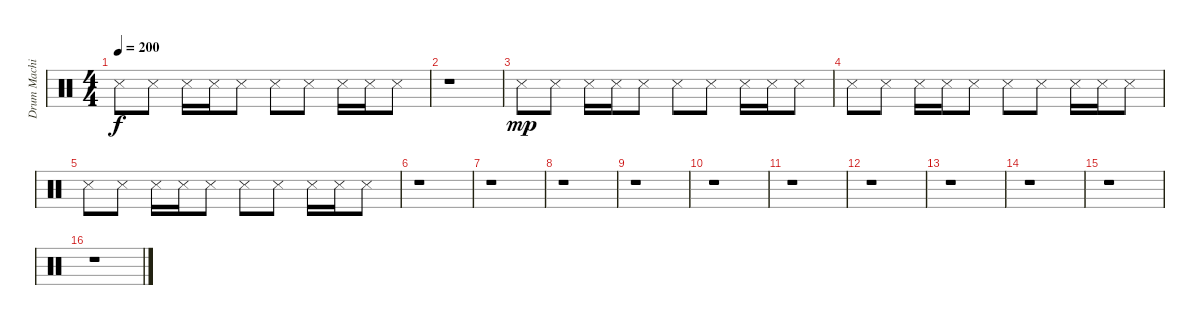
\track ("Drum Machine (James)" "Drum Machi") {instrument percussion}
\staff {score}
\articulation defaults
\ts (4 4)
\tempo 200
\clef neutral
\ks c "Metronome (hit)".8{dy f} "Metronome (hit)".8 "Metronome (hit)".16 "Metronome (hit)".16 "Metronome (hit)".8 "Metronome (hit)".8 "Metronome (hit)".8 "Metronome (hit)".16 "Metronome (hit)".16 "Metronome (hit)".8
|
r.1 |
"Metronome (hit)".8{dy mp} "Metronome (hit)".8 "Metronome (hit)".16 "Metronome (hit)".16 "Metronome (hit)".8 "Metronome (hit)".8 "Metronome (hit)".8 "Metronome (hit)".16 "Metronome (hit)".16 "Metronome (hit)".8 |
"Metronome (hit)".8 "Metronome (hit)".8 "Metronome (hit)".16 "Metronome (hit)".16 "Metronome (hit)".8 "Metronome (hit)".8 "Metronome (hit)".8 "Metronome (hit)".16 "Metronome (hit)".16 "Metronome (hit)".8 |
"Metronome (hit)".8 "Metronome (hit)".8 "Metronome (hit)".16 "Metronome (hit)".16 "Metronome (hit)".8 "Metronome (hit)".8 "Metronome (hit)".8 "Metronome (hit)".16 "Metronome (hit)".16 "Metronome (hit)".8 |
r.1 |
r.1 |
r.1 |
r.1 |
r.1 |
r.1 |
r.1 |
r.1 |
r.1 |
r.1 |
r.1
